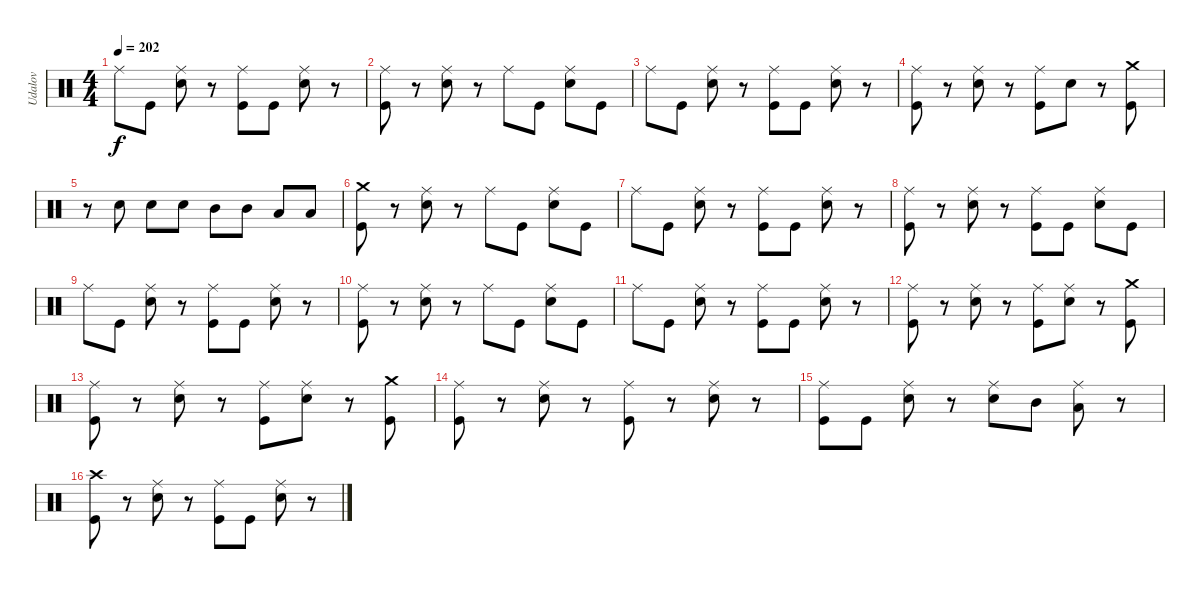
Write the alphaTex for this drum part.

\track ("Udalov" "Udalov") {instrument percussion}
\staff {score}
\articulation defaults
\ts (4 4)
\tempo 202
\clef neutral
\ks c "Ride (middle)".8{dy f} "Kick (hit)".8
("Electric Snare (hit)" "Ride (middle)").8 r.8 ("Kick (hit)" "Ride (middle)").8 "Kick (hit)".8 ("Electric Snare (hit)" "Ride (middle)").8 r.8 |
("Kick (hit)" "Ride (middle)").8 r.8 ("Electric Snare (hit)" "Ride (middle)").8 r.8 "Ride (middle)".8 "Kick (hit)".8 ("Electric Snare (hit)" "Ride (middle)").8 "Kick (hit)".8 |
"Ride (middle)".8 "Kick (hit)".8 ("Electric Snare (hit)" "Ride (middle)").8 r.8 ("Kick (hit)" "Ride (middle)").8 "Kick (hit)".8 ("Electric Snare (hit)" "Ride (middle)").8 r.8 |
("Kick (hit)" "Ride (middle)").8 r.8 ("Electric Snare (hit)" "Ride (middle)").8 r.8 ("Kick (hit)" "Ride (middle)").8 "Electric Snare (hit)".8 r.8 ("Kick (hit)" "Crash medium (hit)").8 |
r.8 "Electric Snare (hit)".8 "Electric Snare (hit)".8 "Electric Snare (hit)".8 "Mid Tom (hit)".8 "Mid Tom (hit)".8 "Low Tom (hit)".8 "Low Tom (hit)".8 |
("Kick (hit)" "Crash medium (hit)").8 r.8 ("Electric Snare (hit)" "Ride (middle)").8 r.8 "Ride (middle)".8 "Kick (hit)".8 ("Electric Snare (hit)" "Ride (middle)").8 "Kick (hit)".8 |
"Ride (middle)".8 "Kick (hit)".8 ("Electric Snare (hit)" "Ride (middle)").8 r.8 ("Kick (hit)" "Ride (middle)").8 "Kick (hit)".8 ("Electric Snare (hit)" "Ride (middle)").8 r.8 |
("Kick (hit)" "Ride (middle)").8 r.8 ("Electric Snare (hit)" "Ride (middle)").8 r.8 ("Kick (hit)" "Ride (middle)").8 "Kick (hit)".8 ("Electric Snare (hit)" "Ride (middle)").8 "Kick (hit)".8 |
"Ride (middle)".8 "Kick (hit)".8 ("Electric Snare (hit)" "Ride (middle)").8 r.8 ("Kick (hit)" "Ride (middle)").8 "Kick (hit)".8 ("Electric Snare (hit)" "Ride (middle)").8 r.8 |
("Kick (hit)" "Ride (middle)").8 r.8 ("Electric Snare (hit)" "Ride (middle)").8 r.8 "Ride (middle)".8 "Kick (hit)".8 ("Electric Snare (hit)" "Ride (middle)").8 "Kick (hit)".8 |
"Ride (middle)".8 "Kick (hit)".8 ("Electric Snare (hit)" "Ride (middle)").8 r.8 ("Kick (hit)" "Ride (middle)").8 "Kick (hit)".8 ("Electric Snare (hit)" "Ride (middle)").8 r.8 |
("Kick (hit)" "Ride (middle)").8 r.8 ("Electric Snare (hit)" "Ride (middle)").8 r.8 ("Kick (hit)" "Ride (middle)").8 ("Electric Snare (hit)" "Ride (middle)").8 r.8 ("Kick (hit)" "Crash medium (hit)").8 |
("Kick (hit)" "Ride (middle)").8 r.8 ("Electric Snare (hit)" "Ride (middle)").8 r.8 ("Kick (hit)" "Ride (middle)").8 ("Electric Snare (hit)" "Ride (middle)").8 r.8 ("Kick (hit)" "Crash medium (hit)").8 |
("Kick (hit)" "Ride (middle)").8 r.8 ("Electric Snare (hit)" "Ride (middle)").8 r.8 ("Kick (hit)" "Ride (middle)").8 r.8 ("Electric Snare (hit)" "Ride (middle)").8 r.8 |
("Kick (hit)" "Ride (middle)").8 "Kick (hit)".8 ("Electric Snare (hit)" "Ride (middle)").8 r.8 ("Electric Snare (hit)" "Ride (middle)").8 "Mid Tom (hit)".8 ("Low Tom (hit)" "Ride (middle)").8 r.8 |
("Kick (hit)" "Crash high (hit)").8 r.8 ("Electric Snare (hit)" "Ride (middle)").8 r.8 ("Kick (hit)" "Ride (middle)").8 "Kick (hit)".8 ("Electric Snare (hit)" "Ride (middle)").8 r.8
